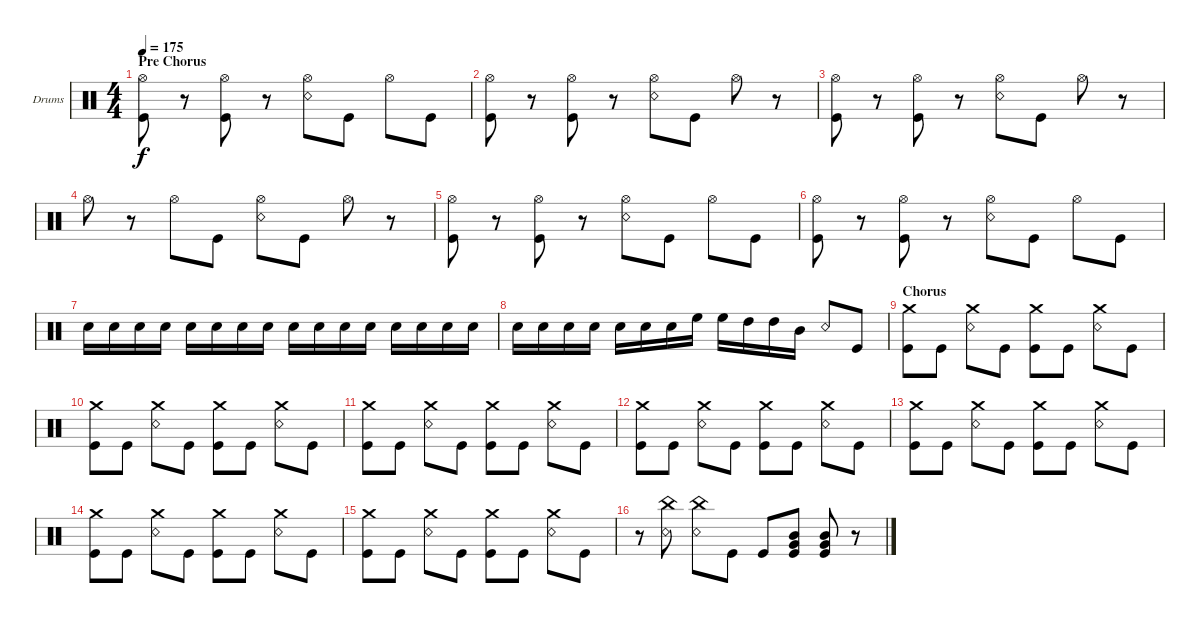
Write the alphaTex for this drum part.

\bracketExtendMode groupsimilarinstruments
\firstSystemTrackNameOrientation horizontal
\otherSystemsTrackNameOrientation horizontal
\track ("Kanky Lora" "Drums") {instrument percussion}
\staff {score}
\articulation defaults
\ts (4 4)
\section ("" "Pre Chorus ")
\tempo 175
\clef neutral
\ks c
("Hi-Hat (open)" "Kick (hit)").8{dy f} r.8 ("Hi-Hat (open)" "Kick (hit)").8 r.8 ("Hi-Hat (open)" "Snare (rim shot)").8 "Kick (hit)".8 "Hi-Hat (open)".8 "Kick (hit)".8 |
("Hi-Hat (open)" "Kick (hit)").8 r.8 ("Hi-Hat (open)" "Kick (hit)").8 r.8 ("Hi-Hat (open)" "Snare (rim shot)").8 "Kick (hit)".8 "Hi-Hat (open)".8 r.8 |
("Hi-Hat (open)" "Kick (hit)").8 r.8 ("Hi-Hat (open)" "Kick (hit)").8 r.8 ("Hi-Hat (open)" "Snare (rim shot)").8 "Kick (hit)".8 "Hi-Hat (open)".8 r.8 |
"Hi-Hat (open)".8 r.8 "Hi-Hat (open)".8 "Kick (hit)".8 ("Hi-Hat (open)" "Snare (rim shot)").8 "Kick (hit)".8 "Hi-Hat (open)".8 r.8 |
("Hi-Hat (open)" "Kick (hit)").8 r.8 ("Hi-Hat (open)" "Kick (hit)").8 r.8 ("Hi-Hat (open)" "Snare (rim shot)").8 "Kick (hit)".8 "Hi-Hat (open)".8 "Kick (hit)".8 |
("Hi-Hat (open)" "Kick (hit)").8 r.8 ("Hi-Hat (open)" "Kick (hit)").8 r.8 ("Hi-Hat (open)" "Snare (rim shot)").8 "Kick (hit)".8 "Hi-Hat (open)".8 "Kick (hit)".8 |
"Snare (hit) 2".16 "Snare (hit) 2".16 "Snare (hit) 2".16 "Snare (hit) 2".16 "Snare (hit) 2".16 "Snare (hit) 2".16 "Snare (hit) 2".16 "Snare (hit) 2".16 "Snare (hit) 2".16 "Snare (hit) 2".16 "Snare (hit) 2".16 "Snare (hit) 2".16 "Snare (hit) 2".16 "Snare (hit) 2".16 "Snare (hit) 2".16 "Snare (hit) 2".16 |
"Snare (hit) 2".16 "Snare (hit) 2".16 "Snare (hit) 2".16 "Snare (hit) 2".16 "Snare (hit) 2".16 "Snare (hit) 2".16 "Snare (hit) 2".16 "High Floor Tom (hit)".16 "High Floor Tom (hit)".16 "High Tom (hit)".16 "High Tom (hit)".16 "Mid Tom (hit)".16 "Snare (rim shot)".8 "Kick (hit)".8 |
\section ("" "Chorus")
("Kick (hit)" "Crash medium (hit)").8 "Kick (hit)".8 ("Snare (rim shot)" "Crash medium (hit)").8 "Kick (hit)".8 ("Kick (hit)" "Crash medium (hit)").8 "Kick (hit)".8 ("Snare (rim shot)" "Crash medium (hit)").8 "Kick (hit)".8 |
("Kick (hit)" "Crash medium (hit)").8 "Kick (hit)".8 ("Snare (rim shot)" "Crash medium (hit)").8 "Kick (hit)".8 ("Kick (hit)" "Crash medium (hit)").8 "Kick (hit)".8 ("Snare (rim shot)" "Crash medium (hit)").8 "Kick (hit)".8 |
("Kick (hit)" "Crash medium (hit)").8 "Kick (hit)".8 ("Snare (rim shot)" "Crash medium (hit)").8 "Kick (hit)".8 ("Kick (hit)" "Crash medium (hit)").8 "Kick (hit)".8 ("Snare (rim shot)" "Crash medium (hit)").8 "Kick (hit)".8 |
("Kick (hit)" "Crash medium (hit)").8 "Kick (hit)".8 ("Snare (rim shot)" "Crash medium (hit)").8 "Kick (hit)".8 ("Kick (hit)" "Crash medium (hit)").8 "Kick (hit)".8 ("Snare (rim shot)" "Crash medium (hit)").8 "Kick (hit)".8 |
("Kick (hit)" "Crash medium (hit)").8 "Kick (hit)".8 ("Snare (rim shot)" "Crash medium (hit)").8 "Kick (hit)".8 ("Kick (hit)" "Crash medium (hit)").8 "Kick (hit)".8 ("Snare (rim shot)" "Crash medium (hit)").8 "Kick (hit)".8 |
("Kick (hit)" "Crash medium (hit)").8 "Kick (hit)".8 ("Snare (rim shot)" "Crash medium (hit)").8 "Kick (hit)".8 ("Kick (hit)" "Crash medium (hit)").8 "Kick (hit)".8 ("Snare (rim shot)" "Crash medium (hit)").8 "Kick (hit)".8 |
("Kick (hit)" "Crash medium (hit)").8 "Kick (hit)".8 ("Snare (rim shot)" "Crash medium (hit)").8 "Kick (hit)".8 ("Kick (hit)" "Crash medium (hit)").8 "Kick (hit)".8 ("Snare (rim shot)" "Crash medium (hit)").8 "Kick (hit)".8 |
r.8 ("Snare (rim shot)" "China (hit)").8 ("Snare (rim shot)" "China (hit)").8 "Kick (hit)".8 "Kick (hit)".8 ("Mid Tom (hit)" "Very Low Tom (hit)" "Kick (hit)").8 ("Kick (hit)" "Very Low Tom (hit)" "Mid Tom (hit)").8 r.8
